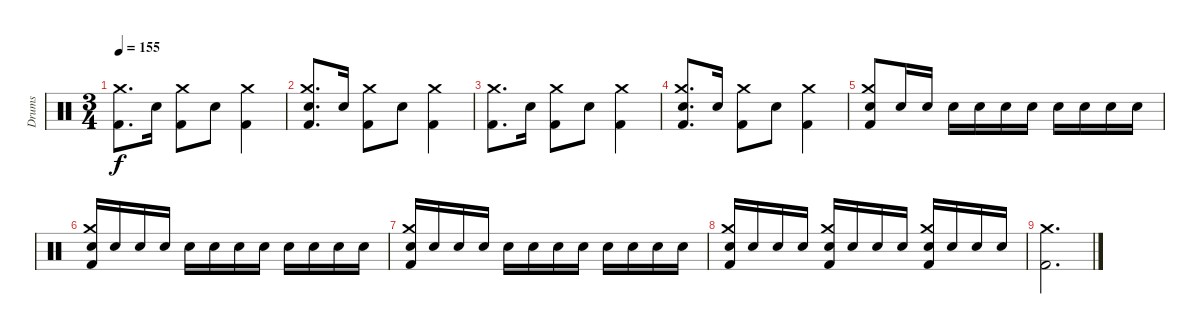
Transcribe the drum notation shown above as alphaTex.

\track ("Drums" "Drums") {instrument percussion}
\staff {score}
\articulation defaults
\ts (3 4)
\tempo 155
\clef neutral
\ks c
("Kick (hit) 2" "Crash medium (hit)").8{d dy f} "Snare (hit) 2".16 ("Kick (hit) 2" "Crash medium (hit)").8 "Snare (hit) 2".8 ("Kick (hit) 2" "Crash medium (hit)").4 |
("Crash medium (hit)" "Snare (hit) 2" "Kick (hit) 2").8{d} "Snare (hit) 2".16 ("Kick (hit) 2" "Crash medium (hit)").8 "Snare (hit) 2".8 ("Kick (hit) 2" "Crash medium (hit)").4 |
("Kick (hit) 2" "Crash medium (hit)").8{d} "Snare (hit) 2".16 ("Kick (hit) 2" "Crash medium (hit)").8 "Snare (hit) 2".8 ("Kick (hit) 2" "Crash medium (hit)").4 |
("Crash medium (hit)" "Snare (hit) 2" "Kick (hit) 2").8{d} "Snare (hit) 2".16 ("Kick (hit) 2" "Crash medium (hit)").8 "Snare (hit) 2".8 ("Kick (hit) 2" "Crash medium (hit)").4 |
("Kick (hit) 2" "Crash medium (hit)" "Snare (hit) 2").8 "Snare (hit) 2".16 "Snare (hit) 2".16 "Snare (hit) 2".16 "Snare (hit) 2".16 "Snare (hit) 2".16 "Snare (hit) 2".16 "Snare (hit) 2".16 "Snare (hit) 2".16 "Snare (hit) 2".16 "Snare (hit) 2".16 |
("Kick (hit) 2" "Crash medium (hit)" "Snare (hit) 2").16 "Snare (hit) 2".16 "Snare (hit) 2".16 "Snare (hit) 2".16 "Snare (hit) 2".16 "Snare (hit) 2".16 "Snare (hit) 2".16 "Snare (hit) 2".16 "Snare (hit) 2".16 "Snare (hit) 2".16 "Snare (hit) 2".16 "Snare (hit) 2".16 |
("Kick (hit) 2" "Crash medium (hit)" "Snare (hit) 2").16 "Snare (hit) 2".16 "Snare (hit) 2".16 "Snare (hit) 2".16 "Snare (hit) 2".16 "Snare (hit) 2".16 "Snare (hit) 2".16 "Snare (hit) 2".16 "Snare (hit) 2".16 "Snare (hit) 2".16 "Snare (hit) 2".16 "Snare (hit) 2".16 |
("Kick (hit) 2" "Crash medium (hit)" "Snare (hit) 2").16 "Snare (hit) 2".16 "Snare (hit) 2".16 "Snare (hit) 2".16 ("Kick (hit) 2" "Crash medium (hit)" "Snare (hit) 2").16 "Snare (hit) 2".16 "Snare (hit) 2".16 "Snare (hit) 2".16 ("Kick (hit) 2" "Crash medium (hit)" "Snare (hit) 2").16 "Snare (hit) 2".16 "Snare (hit) 2".16 "Snare (hit) 2".16 |
("Kick (hit) 2" "Crash medium (hit)").2{d}
